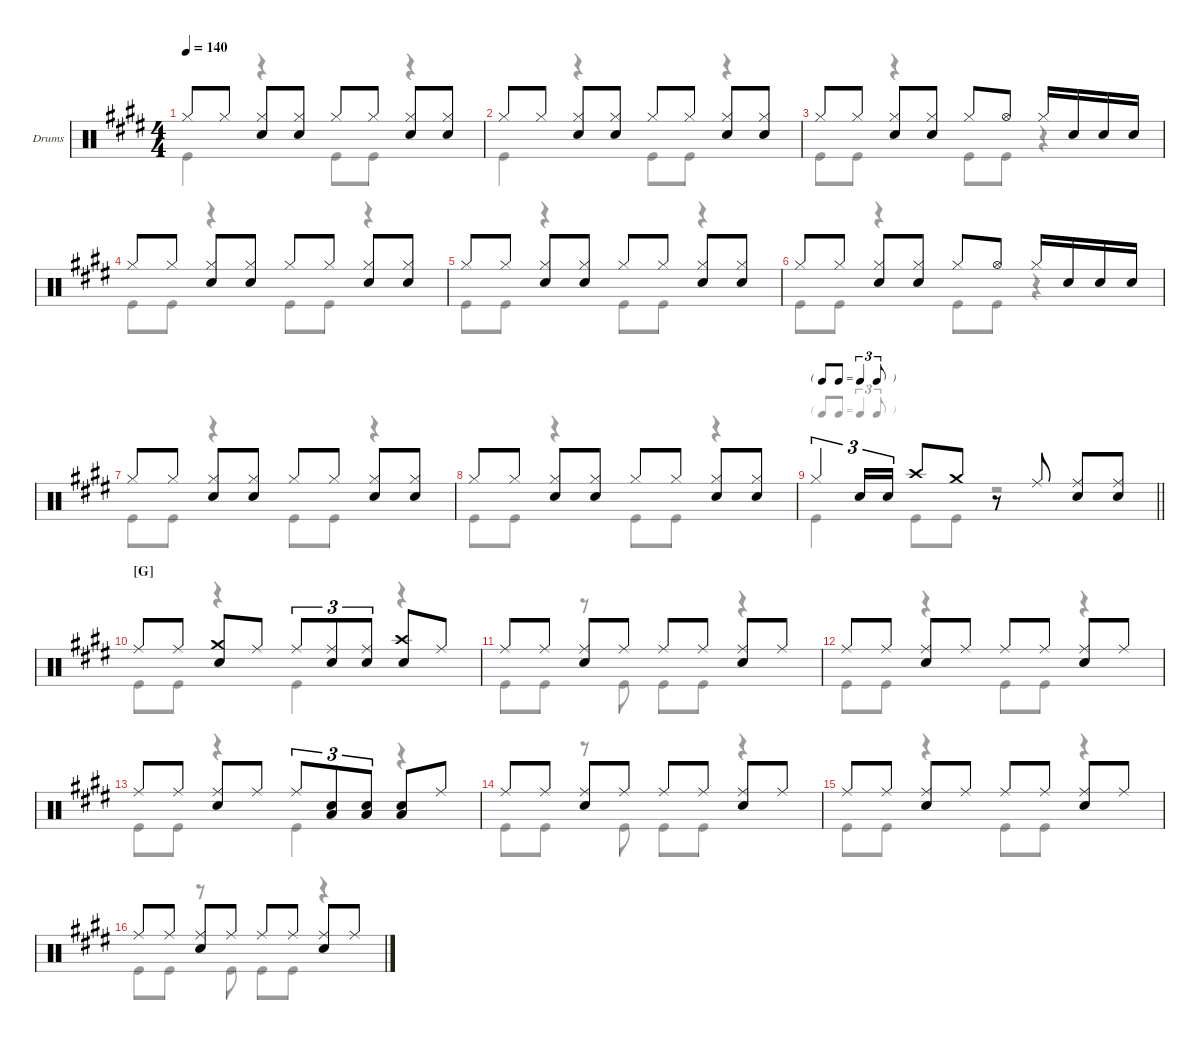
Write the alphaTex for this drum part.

\hideDynamics
\bracketExtendMode groupsimilarinstruments
\firstSystemTrackNameOrientation horizontal
\otherSystemsTrackNameOrientation horizontal
\track ("Drumkit" "Drums") {instrument percussion}
\staff {score}
\articulation defaults
\voice
\ts (4 4)
\scale
0.309296
\tempo 140
\accidentals auto
\clef neutral
\ottava regular
\simile none
\ks e "Hi-Hat (closed)".8{dy f} "Hi-Hat (closed)".8
("Hi-Hat (closed)" "Snare (hit) 2").8 ("Hi-Hat (closed)" "Snare (hit) 2").8 "Hi-Hat (closed)".8 "Hi-Hat (closed)".8 ("Hi-Hat (closed)" "Snare (hit) 2").8 ("Hi-Hat (closed)" "Snare (hit) 2").8 |
\scale
0.297966 "Hi-Hat (closed)".8 "Hi-Hat (closed)".8 ("Hi-Hat (closed)" "Snare (hit) 2").8 ("Hi-Hat (closed)" "Snare (hit) 2").8 "Hi-Hat (closed)".8 "Hi-Hat (closed)".8 ("Hi-Hat (closed)" "Snare (hit) 2").8 ("Hi-Hat (closed)" "Snare (hit) 2").8 |
\scale
0.39454 "Hi-Hat (closed)".8 "Hi-Hat (closed)".8 ("Hi-Hat (closed)" "Snare (hit) 2").8 ("Hi-Hat (closed)" "Snare (hit) 2").8 "Hi-Hat (closed)".8 "Hi-Hat (open)".8{beam split} "Hi-Hat (closed)".16 "Snare (hit) 2".16 "Snare (hit) 2".16 "Snare (hit) 2".16 |
\scale
0.308234 "Hi-Hat (closed)".8 "Hi-Hat (closed)".8 ("Hi-Hat (closed)" "Snare (hit) 2").8 ("Hi-Hat (closed)" "Snare (hit) 2").8 "Hi-Hat (closed)".8 "Hi-Hat (closed)".8 ("Hi-Hat (closed)" "Snare (hit) 2").8 ("Hi-Hat (closed)" "Snare (hit) 2").8 |
\scale
0.301055 "Hi-Hat (closed)".8 "Hi-Hat (closed)".8 ("Hi-Hat (closed)" "Snare (hit) 2").8 ("Hi-Hat (closed)" "Snare (hit) 2").8 "Hi-Hat (closed)".8 "Hi-Hat (closed)".8 ("Hi-Hat (closed)" "Snare (hit) 2").8 ("Hi-Hat (closed)" "Snare (hit) 2").8 |
\scale
0.397985
\scale
0.305019 "Hi-Hat (closed)".8 "Hi-Hat (closed)".8 ("Hi-Hat (closed)" "Snare (hit) 2").8 ("Hi-Hat (closed)" "Snare (hit) 2").8 "Hi-Hat (closed)".8 "Hi-Hat (open)".8{beam split} "Hi-Hat (closed)".16 "Snare (hit) 2".16 "Snare (hit) 2".16 "Snare (hit) 2".16 |
\scale
0.303342
\scale
0.241091 "Hi-Hat (closed)".8 "Hi-Hat (closed)".8 ("Hi-Hat (closed)" "Snare (hit) 2").8 ("Hi-Hat (closed)" "Snare (hit) 2").8 "Hi-Hat (closed)".8 "Hi-Hat (closed)".8 ("Hi-Hat (closed)" "Snare (hit) 2").8 ("Hi-Hat (closed)" "Snare (hit) 2").8 |
\scale
0.299385
\scale
0.215037 "Hi-Hat (closed)".8 "Hi-Hat (closed)".8 ("Hi-Hat (closed)" "Snare (hit) 2").8 ("Hi-Hat (closed)" "Snare (hit) 2").8 "Hi-Hat (closed)".8 "Hi-Hat (closed)".8 ("Hi-Hat (closed)" "Snare (hit) 2").8 ("Hi-Hat (closed)" "Snare (hit) 2").8 |
\tf triplet8th
\scale
0.385682
\scale
0.240254
\barLineRight lightlight "Hi-Hat (closed)".4{tu (3 2)} "Snare (hit) 2".16{tu (3 2)} "Snare (hit) 2".16{tu (3 2)} "Crash high (hit)".8 "Crash medium (hit)".8
r.8 "Ride (middle)".8 ("Ride (middle)" "Snare (hit) 2").8 ("Ride (middle)" "Snare (hit) 2").8 |
\section ("G" "")
\scale
0.321184 "Ride (middle)".8 "Ride (middle)".8 ("Crash medium (hit)" "Snare (hit) 2").8 "Ride (middle)".8 "Ride (middle)".8{tu (3 2)} ("Ride (middle)" "Snare (hit) 2").8{tu (3 2)} ("Ride (middle)" "Snare (hit) 2").8{tu (3 2)} ("Crash high (hit)" "Snare (hit) 2").8 "Ride (middle)".8 |
\scale
0.29435 "Ride (middle)".8 "Ride (middle)".8 ("Ride (middle)" "Snare (hit) 2").8 "Ride (middle)".8 "Ride (middle)".8 "Ride (middle)".8 ("Ride (middle)" "Snare (hit) 2").8 "Ride (middle)".8 |
\scale
0.39659 "Ride (middle)".8 "Ride (middle)".8 ("Ride (middle)" "Snare (hit) 2").8 "Ride (middle)".8 "Ride (middle)".8 "Ride (middle)".8 ("Ride (middle)" "Snare (hit) 2").8 "Ride (middle)".8 |
\scale
0.318623 "Ride (middle)".8 "Ride (middle)".8 ("Ride (middle)" "Snare (hit) 2").8 "Ride (middle)".8 "Ride (middle)".8{tu (3 2)} ("Snare (hit) 2" "Low Tom (hit)").8{tu (3 2)} ("Snare (hit) 2" "Low Tom (hit)").8{tu (3 2)} ("Snare (hit) 2" "Low Tom (hit)").8 "Ride (middle)".8 |
\scale
0.284578 "Ride (middle)".8 "Ride (middle)".8 ("Ride (middle)" "Snare (hit) 2").8 "Ride (middle)".8 "Ride (middle)".8 "Ride (middle)".8 ("Ride (middle)" "Snare (hit) 2").8 "Ride (middle)".8 |
\scale
0.398102 "Ride (middle)".8 "Ride (middle)".8 ("Ride (middle)" "Snare (hit) 2").8 "Ride (middle)".8 "Ride (middle)".8 "Ride (middle)".8 ("Ride (middle)" "Snare (hit) 2").8 "Ride (middle)".8 |
\scale
0.294452 "Ride (middle)".8 "Ride (middle)".8 ("Ride (middle)" "Snare (hit) 2").8 "Ride (middle)".8 "Ride (middle)".8 "Ride (middle)".8 ("Ride (middle)" "Snare (hit) 2").8 "Ride (middle)".8
\voice
\clef neutral
\ottava regular
\simile none
\ks e "Kick (hit)".4{dy mf}
r.4 "Kick (hit)".8 "Kick (hit)".8 r.4 |
"Kick (hit)".4 r.4 "Kick (hit)".8 "Kick (hit)".8 r.4 |
"Kick (hit)".8 "Kick (hit)".8 r.4 "Kick (hit)".8 "Kick (hit)".8 r.4 |
"Kick (hit)".8 "Kick (hit)".8 r.4 "Kick (hit)".8 "Kick (hit)".8 r.4 |
"Kick (hit)".8 "Kick (hit)".8 r.4 "Kick (hit)".8 "Kick (hit)".8 r.4 |
\scale
0.305019 "Kick (hit)".8 "Kick (hit)".8 r.4 "Kick (hit)".8 "Kick (hit)".8 r.4 |
\scale
0.241091 "Kick (hit)".8 "Kick (hit)".8 r.4 "Kick (hit)".8 "Kick (hit)".8 r.4 |
\scale
0.215037 "Kick (hit)".8 "Kick (hit)".8 r.4 "Kick (hit)".8 "Kick (hit)".8 r.4 |
\scale
0.240254
\barLineRight lightlight "Kick (hit)".4 "Kick (hit)".8 "Kick (hit)".8
r.2 |
"Kick (hit)".8 "Kick (hit)".8 r.4 "Kick (hit)".4 r.4 |
"Kick (hit)".8 "Kick (hit)".8 r.8 "Kick (hit)".8 "Kick (hit)".8 "Kick (hit)".8 r.4 |
"Kick (hit)".8 "Kick (hit)".8 r.4 "Kick (hit)".8 "Kick (hit)".8 r.4 |
"Kick (hit)".8 "Kick (hit)".8 r.4 "Kick (hit)".4 r.4 |
"Kick (hit)".8 "Kick (hit)".8 r.8 "Kick (hit)".8 "Kick (hit)".8 "Kick (hit)".8 r.4 |
"Kick (hit)".8 "Kick (hit)".8 r.4 "Kick (hit)".8 "Kick (hit)".8 r.4 |
"Kick (hit)".8 "Kick (hit)".8 r.8 "Kick (hit)".8 "Kick (hit)".8 "Kick (hit)".8 r.4
